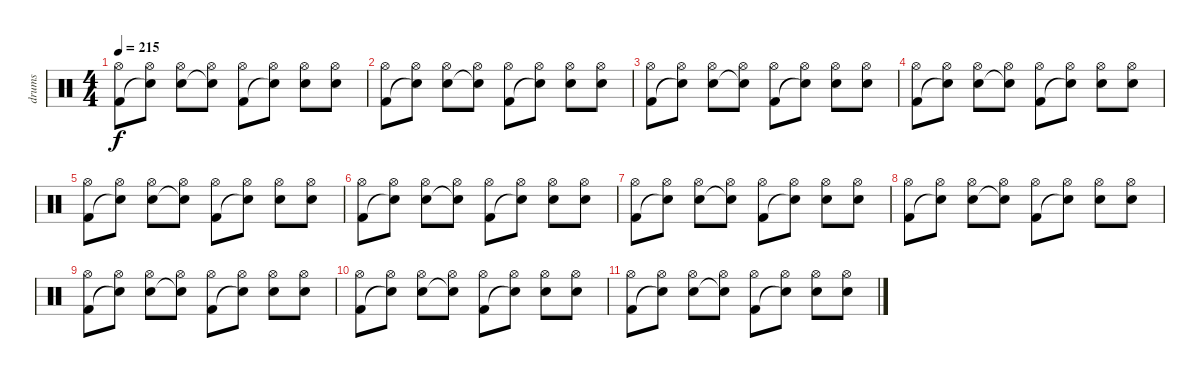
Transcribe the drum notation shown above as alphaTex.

\track ("drums" "drums") {instrument percussion}
\staff {score}
\articulation defaults
\ts (4 4)
\tempo 215
\clef neutral
\ks c
("Hi-Hat (open)" "Kick (hit) 2").8{dy f} ("Hi-Hat (open)" "Snare (hit)"{t}).8 ("Hi-Hat (open)" "Snare (hit) 2").8 ("Hi-Hat (open)" "Snare (hit)"{t}).8 ("Hi-Hat (open)" "Kick (hit) 2").8 ("Hi-Hat (open)" "Snare (hit)"{t}).8 ("Hi-Hat (open)" "Snare (hit) 2").8 ("Hi-Hat (open)" "Snare (hit) 2").8 |
("Hi-Hat (open)" "Kick (hit) 2").8 ("Hi-Hat (open)" "Snare (hit)"{t}).8 ("Hi-Hat (open)" "Snare (hit) 2").8 ("Hi-Hat (open)" "Snare (hit)"{t}).8 ("Hi-Hat (open)" "Kick (hit) 2").8 ("Hi-Hat (open)" "Snare (hit)"{t}).8 ("Hi-Hat (open)" "Snare (hit) 2").8 ("Hi-Hat (open)" "Snare (hit) 2").8 |
("Hi-Hat (open)" "Kick (hit) 2").8 ("Hi-Hat (open)" "Snare (hit)"{t}).8 ("Hi-Hat (open)" "Snare (hit) 2").8 ("Hi-Hat (open)" "Snare (hit)"{t}).8 ("Hi-Hat (open)" "Kick (hit) 2").8 ("Hi-Hat (open)" "Snare (hit)"{t}).8 ("Hi-Hat (open)" "Snare (hit) 2").8 ("Hi-Hat (open)" "Snare (hit) 2").8 |
("Hi-Hat (open)" "Kick (hit) 2").8 ("Hi-Hat (open)" "Snare (hit)"{t}).8 ("Hi-Hat (open)" "Snare (hit) 2").8 ("Hi-Hat (open)" "Snare (hit)"{t}).8 ("Hi-Hat (open)" "Kick (hit) 2").8 ("Hi-Hat (open)" "Snare (hit)"{t}).8 ("Hi-Hat (open)" "Snare (hit) 2").8 ("Hi-Hat (open)" "Snare (hit) 2").8 |
("Hi-Hat (open)" "Kick (hit) 2").8 ("Hi-Hat (open)" "Snare (hit)"{t}).8 ("Hi-Hat (open)" "Snare (hit) 2").8 ("Hi-Hat (open)" "Snare (hit)"{t}).8 ("Hi-Hat (open)" "Kick (hit) 2").8 ("Hi-Hat (open)" "Snare (hit)"{t}).8 ("Hi-Hat (open)" "Snare (hit) 2").8 ("Hi-Hat (open)" "Snare (hit) 2").8 |
("Hi-Hat (open)" "Kick (hit) 2").8 ("Hi-Hat (open)" "Snare (hit)"{t}).8 ("Hi-Hat (open)" "Snare (hit) 2").8 ("Hi-Hat (open)" "Snare (hit)"{t}).8 ("Hi-Hat (open)" "Kick (hit) 2").8 ("Hi-Hat (open)" "Snare (hit)"{t}).8 ("Hi-Hat (open)" "Snare (hit) 2").8 ("Hi-Hat (open)" "Snare (hit) 2").8 |
("Hi-Hat (open)" "Kick (hit) 2").8 ("Hi-Hat (open)" "Snare (hit)"{t}).8 ("Hi-Hat (open)" "Snare (hit) 2").8 ("Hi-Hat (open)" "Snare (hit)"{t}).8 ("Hi-Hat (open)" "Kick (hit) 2").8 ("Hi-Hat (open)" "Snare (hit)"{t}).8 ("Hi-Hat (open)" "Snare (hit) 2").8 ("Hi-Hat (open)" "Snare (hit) 2").8 |
("Hi-Hat (open)" "Kick (hit) 2").8 ("Hi-Hat (open)" "Snare (hit)"{t}).8 ("Hi-Hat (open)" "Snare (hit) 2").8 ("Hi-Hat (open)" "Snare (hit)"{t}).8 ("Hi-Hat (open)" "Kick (hit) 2").8 ("Hi-Hat (open)" "Snare (hit)"{t}).8 ("Hi-Hat (open)" "Snare (hit) 2").8 ("Hi-Hat (open)" "Snare (hit) 2").8 |
("Hi-Hat (open)" "Kick (hit) 2").8 ("Hi-Hat (open)" "Snare (hit)"{t}).8 ("Hi-Hat (open)" "Snare (hit) 2").8 ("Hi-Hat (open)" "Snare (hit)"{t}).8 ("Hi-Hat (open)" "Kick (hit) 2").8 ("Hi-Hat (open)" "Snare (hit)"{t}).8 ("Hi-Hat (open)" "Snare (hit) 2").8 ("Hi-Hat (open)" "Snare (hit) 2").8 |
("Hi-Hat (open)" "Kick (hit) 2").8 ("Hi-Hat (open)" "Snare (hit)"{t}).8 ("Hi-Hat (open)" "Snare (hit) 2").8 ("Hi-Hat (open)" "Snare (hit)"{t}).8 ("Hi-Hat (open)" "Kick (hit) 2").8 ("Hi-Hat (open)" "Snare (hit)"{t}).8 ("Hi-Hat (open)" "Snare (hit) 2").8 ("Hi-Hat (open)" "Snare (hit) 2").8 |
("Hi-Hat (open)" "Kick (hit) 2").8 ("Hi-Hat (open)" "Snare (hit)"{t}).8 ("Hi-Hat (open)" "Snare (hit) 2").8 ("Hi-Hat (open)" "Snare (hit)"{t}).8 ("Hi-Hat (open)" "Kick (hit) 2").8 ("Hi-Hat (open)" "Snare (hit)"{t}).8 ("Hi-Hat (open)" "Snare (hit) 2").8 ("Hi-Hat (open)" "Snare (hit) 2").8
